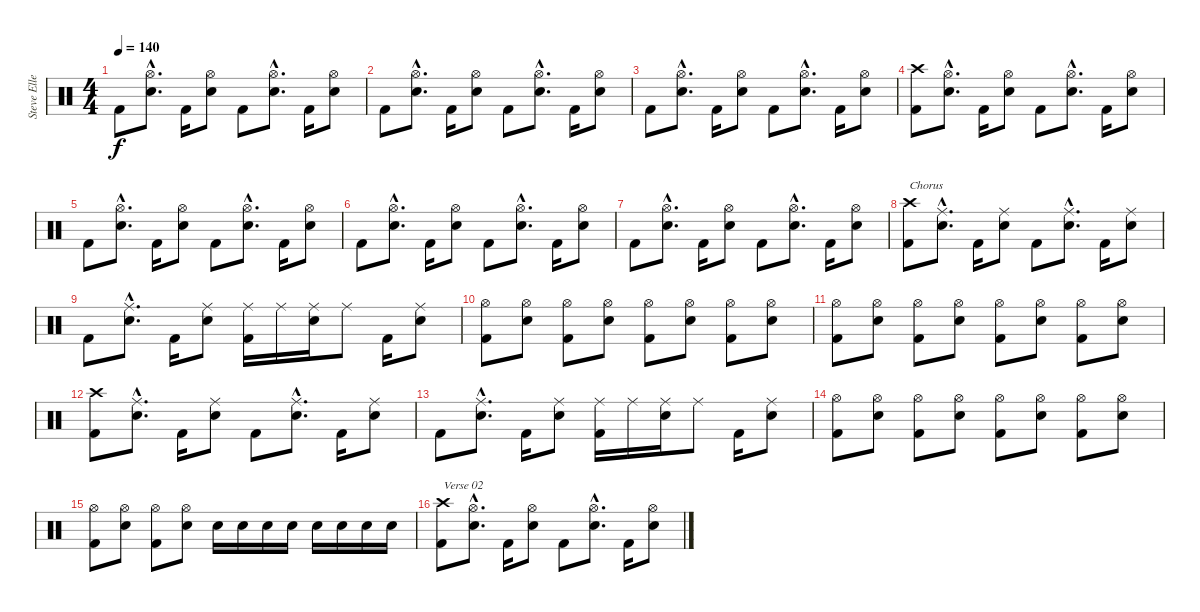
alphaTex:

\track ("Steve Ellett" "Steve Elle") {instrument percussion}
\staff {score}
\articulation defaults
\ts (4 4)
\tempo 140
\clef neutral
\ks c "Kick (hit) 2".8{dy f}
("Hi-Hat (open)"{hac} "Snare (hit) 2"{hac}).8{d} "Kick (hit) 2".16 ("Hi-Hat (open)" "Snare (hit) 2").8 "Kick (hit) 2".8 ("Hi-Hat (open)"{hac} "Snare (hit) 2"{hac}).8{d} "Kick (hit) 2".16 ("Hi-Hat (open)" "Snare (hit) 2").8 |
"Kick (hit) 2".8 ("Hi-Hat (open)"{hac} "Snare (hit) 2"{hac}).8{d} "Kick (hit) 2".16 ("Hi-Hat (open)" "Snare (hit) 2").8 "Kick (hit) 2".8 ("Hi-Hat (open)"{hac} "Snare (hit) 2"{hac}).8{d} "Kick (hit) 2".16 ("Hi-Hat (open)" "Snare (hit) 2").8 |
"Kick (hit) 2".8 ("Hi-Hat (open)"{hac} "Snare (hit) 2"{hac}).8{d} "Kick (hit) 2".16 ("Hi-Hat (open)" "Snare (hit) 2").8 "Kick (hit) 2".8 ("Hi-Hat (open)"{hac} "Snare (hit) 2"{hac}).8{d} "Kick (hit) 2".16 ("Hi-Hat (open)" "Snare (hit) 2").8 |
("Crash high (hit)" "Kick (hit) 2").8 ("Hi-Hat (open)"{hac} "Snare (hit) 2"{hac}).8{d} "Kick (hit) 2".16 ("Hi-Hat (open)" "Snare (hit) 2").8 "Kick (hit) 2".8 ("Hi-Hat (open)"{hac} "Snare (hit) 2"{hac}).8{d} "Kick (hit) 2".16 ("Hi-Hat (open)" "Snare (hit) 2").8 |
"Kick (hit) 2".8 ("Hi-Hat (open)"{hac} "Snare (hit) 2"{hac}).8{d} "Kick (hit) 2".16 ("Hi-Hat (open)" "Snare (hit) 2").8 "Kick (hit) 2".8 ("Hi-Hat (open)"{hac} "Snare (hit) 2"{hac}).8{d} "Kick (hit) 2".16 ("Hi-Hat (open)" "Snare (hit) 2").8 |
"Kick (hit) 2".8 ("Hi-Hat (open)"{hac} "Snare (hit) 2"{hac}).8{d} "Kick (hit) 2".16 ("Hi-Hat (open)" "Snare (hit) 2").8 "Kick (hit) 2".8 ("Hi-Hat (open)"{hac} "Snare (hit) 2"{hac}).8{d} "Kick (hit) 2".16 ("Hi-Hat (open)" "Snare (hit) 2").8 |
"Kick (hit) 2".8 ("Hi-Hat (open)"{hac} "Snare (hit) 2"{hac}).8{d} "Kick (hit) 2".16 ("Hi-Hat (open)" "Snare (hit) 2").8 "Kick (hit) 2".8 ("Hi-Hat (open)"{hac} "Snare (hit) 2"{hac}).8{d} "Kick (hit) 2".16 ("Hi-Hat (open)" "Snare (hit) 2").8 |
("Crash high (hit)" "Kick (hit) 2").8{txt "Chorus"} ("Ride (middle)"{hac} "Snare (hit) 2"{hac}).8{d} "Kick (hit) 2".16 ("Ride (middle)" "Snare (hit) 2").8 "Kick (hit) 2".8 ("Ride (middle)"{hac} "Snare (hit) 2"{hac}).8{d} "Kick (hit) 2".16 ("Ride (middle)" "Snare (hit) 2").8 |
"Kick (hit) 2".8 ("Ride (middle)"{hac} "Snare (hit) 2"{hac}).8{d} "Kick (hit) 2".16 ("Ride (middle)" "Snare (hit) 2").8 ("Ride (middle)" "Kick (hit) 2").16 "Ride (middle)".16 ("Ride (middle)" "Snare (hit) 2").16 "Ride (middle)".8 "Kick (hit) 2".16 ("Ride (middle)" "Snare (hit) 2").8 |
("Hi-Hat (open)" "Kick (hit) 2").8 ("Hi-Hat (open)" "Snare (hit) 2").8 ("Hi-Hat (open)" "Kick (hit) 2").8 ("Hi-Hat (open)" "Snare (hit) 2").8 ("Hi-Hat (open)" "Kick (hit) 2").8 ("Hi-Hat (open)" "Snare (hit) 2").8 ("Hi-Hat (open)" "Kick (hit) 2").8 ("Hi-Hat (open)" "Snare (hit) 2").8 |
("Hi-Hat (open)" "Kick (hit) 2").8 ("Hi-Hat (open)" "Snare (hit) 2").8 ("Hi-Hat (open)" "Kick (hit) 2").8 ("Hi-Hat (open)" "Snare (hit) 2").8 ("Hi-Hat (open)" "Kick (hit) 2").8 ("Hi-Hat (open)" "Snare (hit) 2").8 ("Hi-Hat (open)" "Kick (hit) 2").8 ("Hi-Hat (open)" "Snare (hit) 2").8 |
("Crash high (hit)" "Kick (hit) 2").8 ("Ride (middle)"{hac} "Snare (hit) 2"{hac}).8{d} "Kick (hit) 2".16 ("Ride (middle)" "Snare (hit) 2").8 "Kick (hit) 2".8 ("Ride (middle)"{hac} "Snare (hit) 2"{hac}).8{d} "Kick (hit) 2".16 ("Ride (middle)" "Snare (hit) 2").8 |
"Kick (hit) 2".8 ("Ride (middle)"{hac} "Snare (hit) 2"{hac}).8{d} "Kick (hit) 2".16 ("Ride (middle)" "Snare (hit) 2").8 ("Ride (middle)" "Kick (hit) 2").16 "Ride (middle)".16 ("Ride (middle)" "Snare (hit) 2").16 "Ride (middle)".8 "Kick (hit) 2".16 ("Ride (middle)" "Snare (hit) 2").8 |
("Hi-Hat (open)" "Kick (hit) 2").8 ("Hi-Hat (open)" "Snare (hit) 2").8 ("Hi-Hat (open)" "Kick (hit) 2").8 ("Hi-Hat (open)" "Snare (hit) 2").8 ("Hi-Hat (open)" "Kick (hit) 2").8 ("Hi-Hat (open)" "Snare (hit) 2").8 ("Hi-Hat (open)" "Kick (hit) 2").8 ("Hi-Hat (open)" "Snare (hit) 2").8 |
("Hi-Hat (open)" "Kick (hit) 2").8 ("Hi-Hat (open)" "Snare (hit) 2").8 ("Hi-Hat (open)" "Kick (hit) 2").8 ("Hi-Hat (open)" "Snare (hit) 2").8 "Snare (hit) 2".16 "Snare (hit) 2".16 "Snare (hit) 2".16 "Snare (hit) 2".16 "Snare (hit) 2".16 "Snare (hit) 2".16 "Snare (hit) 2".16 "Snare (hit) 2".16 |
("Crash high (hit)" "Kick (hit) 2").8{txt "Verse 02"} ("Hi-Hat (open)"{hac} "Snare (hit) 2"{hac}).8{d} "Kick (hit) 2".16 ("Hi-Hat (open)" "Snare (hit) 2").8 "Kick (hit) 2".8 ("Hi-Hat (open)"{hac} "Snare (hit) 2"{hac}).8{d} "Kick (hit) 2".16 ("Hi-Hat (open)" "Snare (hit) 2").8
